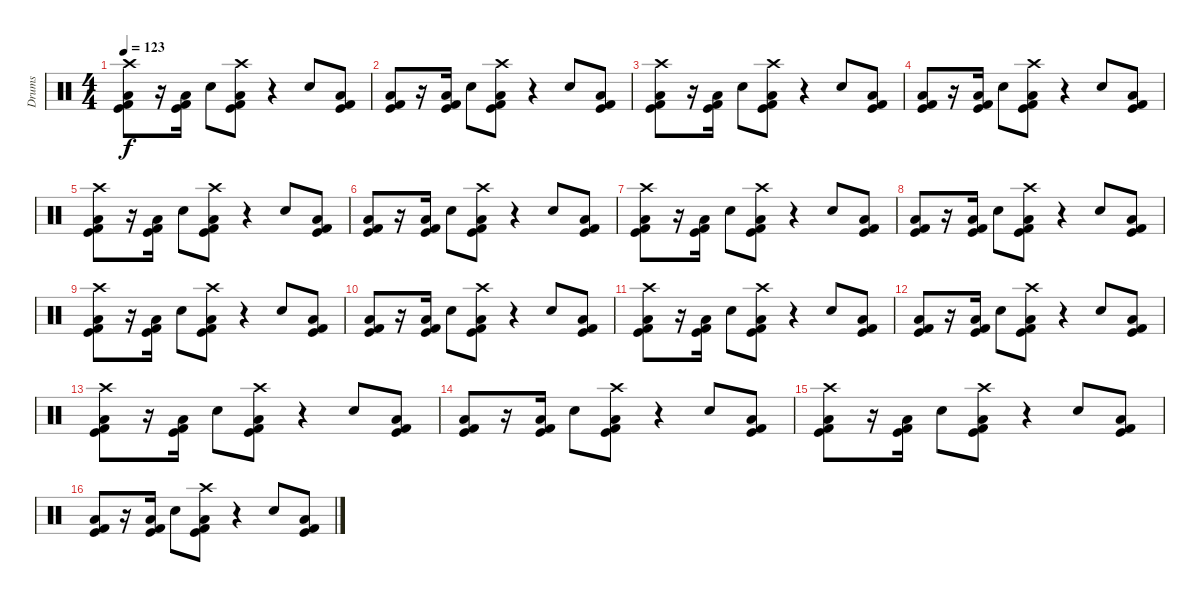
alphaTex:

\track ("Drums" "Drums") {instrument percussion}
\staff {score}
\articulation defaults
\ts (4 4)
\tempo 123
\clef neutral
\ks c
("Crash high (hit)" "Kick (hit)" "Kick (hit) 2" "Low Floor Tom (hit)").8{dy f} r.16 ("Kick (hit)" "Kick (hit) 2" "Low Floor Tom (hit)").16 "Electric Snare (hit)".8 ("Crash high (hit)" "Kick (hit)" "Kick (hit) 2" "Low Floor Tom (hit)").8 r.4 "Electric Snare (hit)".8 ("Kick (hit)" "Kick (hit) 2" "Low Floor Tom (hit)").8 |
("Kick (hit)" "Kick (hit) 2" "Low Floor Tom (hit)").8 r.16 ("Kick (hit)" "Kick (hit) 2" "Low Floor Tom (hit)").16 "Electric Snare (hit)".8 ("Crash high (hit)" "Kick (hit)" "Kick (hit) 2" "Low Floor Tom (hit)").8 r.4 "Electric Snare (hit)".8 ("Kick (hit)" "Kick (hit) 2" "Low Floor Tom (hit)").8 |
("Crash high (hit)" "Kick (hit)" "Kick (hit) 2" "Low Floor Tom (hit)").8 r.16 ("Kick (hit)" "Kick (hit) 2" "Low Floor Tom (hit)").16 "Electric Snare (hit)".8 ("Crash high (hit)" "Kick (hit)" "Kick (hit) 2" "Low Floor Tom (hit)").8 r.4 "Electric Snare (hit)".8 ("Kick (hit)" "Kick (hit) 2" "Low Floor Tom (hit)").8 |
("Kick (hit)" "Kick (hit) 2" "Low Floor Tom (hit)").8 r.16 ("Kick (hit)" "Kick (hit) 2" "Low Floor Tom (hit)").16 "Electric Snare (hit)".8 ("Crash high (hit)" "Kick (hit)" "Kick (hit) 2" "Low Floor Tom (hit)").8 r.4 "Electric Snare (hit)".8 ("Kick (hit)" "Kick (hit) 2" "Low Floor Tom (hit)").8 |
("Crash high (hit)" "Kick (hit)" "Kick (hit) 2" "Low Floor Tom (hit)").8 r.16 ("Kick (hit)" "Kick (hit) 2" "Low Floor Tom (hit)").16 "Electric Snare (hit)".8 ("Crash high (hit)" "Kick (hit)" "Kick (hit) 2" "Low Floor Tom (hit)").8 r.4 "Electric Snare (hit)".8 ("Kick (hit)" "Kick (hit) 2" "Low Floor Tom (hit)").8 |
("Kick (hit)" "Kick (hit) 2" "Low Floor Tom (hit)").8 r.16 ("Kick (hit)" "Kick (hit) 2" "Low Floor Tom (hit)").16 "Electric Snare (hit)".8 ("Crash high (hit)" "Kick (hit)" "Kick (hit) 2" "Low Floor Tom (hit)").8 r.4 "Electric Snare (hit)".8 ("Kick (hit)" "Kick (hit) 2" "Low Floor Tom (hit)").8 |
("Crash high (hit)" "Kick (hit)" "Kick (hit) 2" "Low Floor Tom (hit)").8 r.16 ("Kick (hit)" "Kick (hit) 2" "Low Floor Tom (hit)").16 "Electric Snare (hit)".8 ("Crash high (hit)" "Kick (hit)" "Kick (hit) 2" "Low Floor Tom (hit)").8 r.4 "Electric Snare (hit)".8 ("Kick (hit)" "Kick (hit) 2" "Low Floor Tom (hit)").8 |
("Kick (hit)" "Kick (hit) 2" "Low Floor Tom (hit)").8 r.16 ("Kick (hit)" "Kick (hit) 2" "Low Floor Tom (hit)").16 "Electric Snare (hit)".8 ("Crash high (hit)" "Kick (hit)" "Kick (hit) 2" "Low Floor Tom (hit)").8 r.4 "Electric Snare (hit)".8 ("Kick (hit)" "Kick (hit) 2" "Low Floor Tom (hit)").8 |
("Crash high (hit)" "Kick (hit)" "Kick (hit) 2" "Low Floor Tom (hit)").8 r.16 ("Kick (hit)" "Kick (hit) 2" "Low Floor Tom (hit)").16 "Electric Snare (hit)".8 ("Crash high (hit)" "Kick (hit)" "Kick (hit) 2" "Low Floor Tom (hit)").8 r.4 "Electric Snare (hit)".8 ("Kick (hit)" "Kick (hit) 2" "Low Floor Tom (hit)").8 |
("Kick (hit)" "Kick (hit) 2" "Low Floor Tom (hit)").8 r.16 ("Kick (hit)" "Kick (hit) 2" "Low Floor Tom (hit)").16 "Electric Snare (hit)".8 ("Crash high (hit)" "Kick (hit)" "Kick (hit) 2" "Low Floor Tom (hit)").8 r.4 "Electric Snare (hit)".8 ("Kick (hit)" "Kick (hit) 2" "Low Floor Tom (hit)").8 |
("Crash high (hit)" "Kick (hit)" "Kick (hit) 2" "Low Floor Tom (hit)").8 r.16 ("Kick (hit)" "Kick (hit) 2" "Low Floor Tom (hit)").16 "Electric Snare (hit)".8 ("Crash high (hit)" "Kick (hit)" "Kick (hit) 2" "Low Floor Tom (hit)").8 r.4 "Electric Snare (hit)".8 ("Kick (hit)" "Kick (hit) 2" "Low Floor Tom (hit)").8 |
("Kick (hit)" "Kick (hit) 2" "Low Floor Tom (hit)").8 r.16 ("Kick (hit)" "Kick (hit) 2" "Low Floor Tom (hit)").16 "Electric Snare (hit)".8 ("Crash high (hit)" "Kick (hit)" "Kick (hit) 2" "Low Floor Tom (hit)").8 r.4 "Electric Snare (hit)".8 ("Kick (hit)" "Kick (hit) 2" "Low Floor Tom (hit)").8 |
("Crash high (hit)" "Kick (hit)" "Kick (hit) 2" "Low Floor Tom (hit)").8 r.16 ("Kick (hit)" "Kick (hit) 2" "Low Floor Tom (hit)").16 "Electric Snare (hit)".8 ("Crash high (hit)" "Kick (hit)" "Kick (hit) 2" "Low Floor Tom (hit)").8 r.4 "Electric Snare (hit)".8 ("Kick (hit)" "Kick (hit) 2" "Low Floor Tom (hit)").8 |
("Kick (hit)" "Kick (hit) 2" "Low Floor Tom (hit)").8 r.16 ("Kick (hit)" "Kick (hit) 2" "Low Floor Tom (hit)").16 "Electric Snare (hit)".8 ("Crash high (hit)" "Kick (hit)" "Kick (hit) 2" "Low Floor Tom (hit)").8 r.4 "Electric Snare (hit)".8 ("Kick (hit)" "Kick (hit) 2" "Low Floor Tom (hit)").8 |
("Crash high (hit)" "Kick (hit)" "Kick (hit) 2" "Low Floor Tom (hit)").8 r.16 ("Kick (hit)" "Kick (hit) 2" "Low Floor Tom (hit)").16 "Electric Snare (hit)".8 ("Crash high (hit)" "Kick (hit)" "Kick (hit) 2" "Low Floor Tom (hit)").8 r.4 "Electric Snare (hit)".8 ("Kick (hit)" "Kick (hit) 2" "Low Floor Tom (hit)").8 |
("Kick (hit)" "Kick (hit) 2" "Low Floor Tom (hit)").8 r.16 ("Kick (hit)" "Kick (hit) 2" "Low Floor Tom (hit)").16 "Electric Snare (hit)".8 ("Crash high (hit)" "Kick (hit)" "Kick (hit) 2" "Low Floor Tom (hit)").8 r.4 "Electric Snare (hit)".8 ("Kick (hit)" "Kick (hit) 2" "Low Floor Tom (hit)").8
